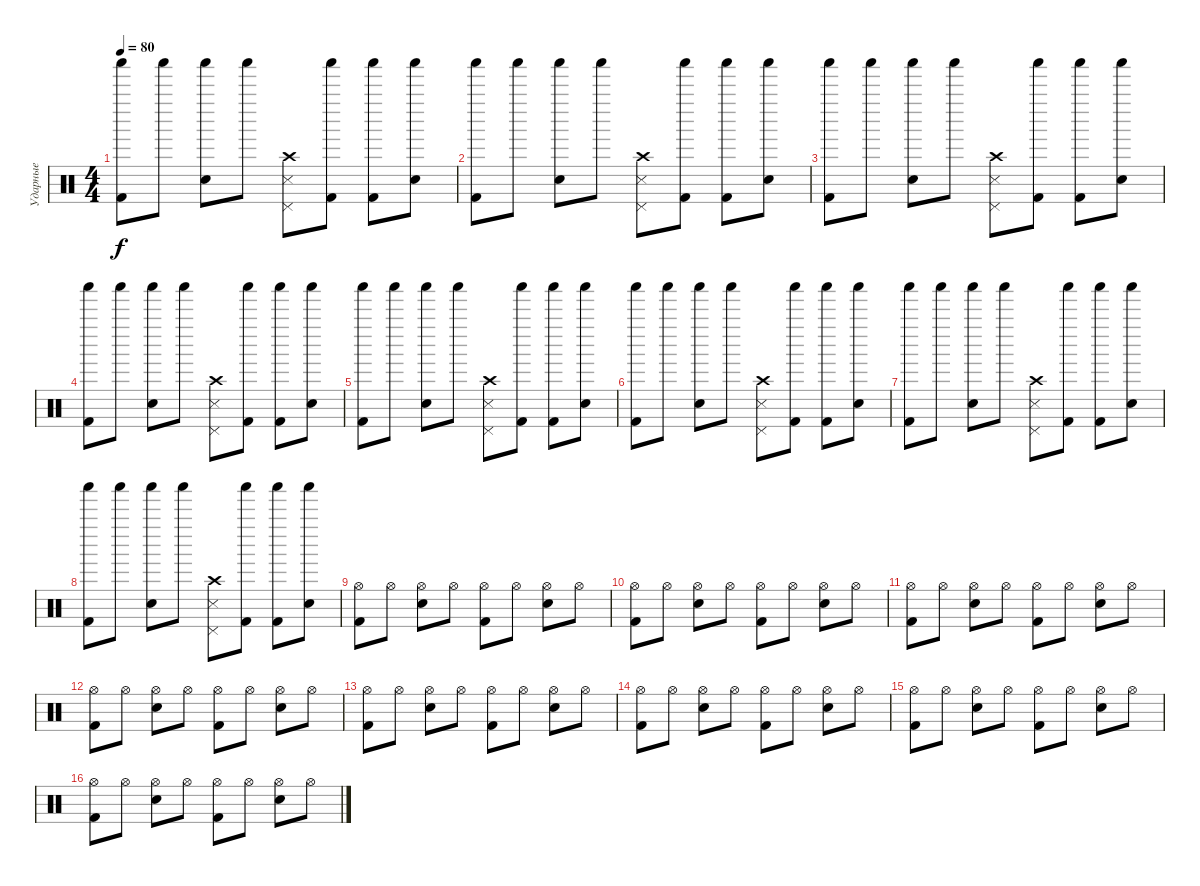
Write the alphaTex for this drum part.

\track ("Ударные" "Ударные") {instrument percussion}
\staff {score}
\articulation defaults
\ts (4 4)
\tempo 80
\clef neutral
\ks c
("Shaker (hit)" "Kick (hit) 2").8{dy f} "Shaker (hit)".8 ("Shaker (hit)" "Snare (hit) 2").8 "Shaker (hit)".8 ("Pedal Hi-Hat (hit)" "Metronome (hit)" "Crash high (hit)").8 ("Shaker (hit)" "Kick (hit) 2").8 ("Shaker (hit)" "Kick (hit) 2").8 ("Shaker (hit)" "Snare (hit) 2").8 |
("Shaker (hit)" "Kick (hit) 2").8 "Shaker (hit)".8 ("Shaker (hit)" "Snare (hit) 2").8 "Shaker (hit)".8 ("Pedal Hi-Hat (hit)" "Metronome (hit)" "Crash high (hit)").8 ("Shaker (hit)" "Kick (hit) 2").8 ("Shaker (hit)" "Kick (hit) 2").8 ("Shaker (hit)" "Snare (hit) 2").8 |
("Shaker (hit)" "Kick (hit) 2").8 "Shaker (hit)".8 ("Shaker (hit)" "Snare (hit) 2").8 "Shaker (hit)".8 ("Pedal Hi-Hat (hit)" "Metronome (hit)" "Crash high (hit)").8 ("Shaker (hit)" "Kick (hit) 2").8 ("Shaker (hit)" "Kick (hit) 2").8 ("Shaker (hit)" "Snare (hit) 2").8 |
("Shaker (hit)" "Kick (hit) 2").8 "Shaker (hit)".8 ("Shaker (hit)" "Snare (hit) 2").8 "Shaker (hit)".8 ("Pedal Hi-Hat (hit)" "Metronome (hit)" "Crash high (hit)").8 ("Shaker (hit)" "Kick (hit) 2").8 ("Shaker (hit)" "Kick (hit) 2").8 ("Shaker (hit)" "Snare (hit) 2").8 |
("Shaker (hit)" "Kick (hit) 2").8 "Shaker (hit)".8 ("Shaker (hit)" "Snare (hit) 2").8 "Shaker (hit)".8 ("Pedal Hi-Hat (hit)" "Metronome (hit)" "Crash high (hit)").8 ("Shaker (hit)" "Kick (hit) 2").8 ("Shaker (hit)" "Kick (hit) 2").8 ("Shaker (hit)" "Snare (hit) 2").8 |
("Shaker (hit)" "Kick (hit) 2").8 "Shaker (hit)".8 ("Shaker (hit)" "Snare (hit) 2").8 "Shaker (hit)".8 ("Pedal Hi-Hat (hit)" "Metronome (hit)" "Crash high (hit)").8 ("Shaker (hit)" "Kick (hit) 2").8 ("Shaker (hit)" "Kick (hit) 2").8 ("Shaker (hit)" "Snare (hit) 2").8 |
("Shaker (hit)" "Kick (hit) 2").8 "Shaker (hit)".8 ("Shaker (hit)" "Snare (hit) 2").8 "Shaker (hit)".8 ("Pedal Hi-Hat (hit)" "Metronome (hit)" "Crash high (hit)").8 ("Shaker (hit)" "Kick (hit) 2").8 ("Shaker (hit)" "Kick (hit) 2").8 ("Shaker (hit)" "Snare (hit) 2").8 |
("Shaker (hit)" "Kick (hit) 2").8 "Shaker (hit)".8 ("Shaker (hit)" "Snare (hit) 2").8 "Shaker (hit)".8 ("Pedal Hi-Hat (hit)" "Metronome (hit)" "Crash high (hit)").8 ("Shaker (hit)" "Kick (hit) 2").8 ("Shaker (hit)" "Kick (hit) 2").8 ("Shaker (hit)" "Snare (hit) 2").8 |
("Hi-Hat (open)" "Kick (hit) 2").8 "Hi-Hat (open)".8 ("Hi-Hat (open)" "Snare (hit) 2").8 "Hi-Hat (open)".8 ("Hi-Hat (open)" "Kick (hit) 2").8 "Hi-Hat (open)".8 ("Hi-Hat (open)" "Snare (hit) 2").8 "Hi-Hat (open)".8 |
("Hi-Hat (open)" "Kick (hit) 2").8 "Hi-Hat (open)".8 ("Hi-Hat (open)" "Snare (hit) 2").8 "Hi-Hat (open)".8 ("Hi-Hat (open)" "Kick (hit) 2").8 "Hi-Hat (open)".8 ("Hi-Hat (open)" "Snare (hit) 2").8 "Hi-Hat (open)".8 |
("Hi-Hat (open)" "Kick (hit) 2").8 "Hi-Hat (open)".8 ("Hi-Hat (open)" "Snare (hit) 2").8 "Hi-Hat (open)".8 ("Hi-Hat (open)" "Kick (hit) 2").8 "Hi-Hat (open)".8 ("Hi-Hat (open)" "Snare (hit) 2").8 "Hi-Hat (open)".8 |
("Hi-Hat (open)" "Kick (hit) 2").8 "Hi-Hat (open)".8 ("Hi-Hat (open)" "Snare (hit) 2").8 "Hi-Hat (open)".8 ("Hi-Hat (open)" "Kick (hit) 2").8 "Hi-Hat (open)".8 ("Hi-Hat (open)" "Snare (hit) 2").8 "Hi-Hat (open)".8 |
("Hi-Hat (open)" "Kick (hit) 2").8 "Hi-Hat (open)".8 ("Hi-Hat (open)" "Snare (hit) 2").8 "Hi-Hat (open)".8 ("Hi-Hat (open)" "Kick (hit) 2").8 "Hi-Hat (open)".8 ("Hi-Hat (open)" "Snare (hit) 2").8 "Hi-Hat (open)".8 |
("Hi-Hat (open)" "Kick (hit) 2").8 "Hi-Hat (open)".8 ("Hi-Hat (open)" "Snare (hit) 2").8 "Hi-Hat (open)".8 ("Hi-Hat (open)" "Kick (hit) 2").8 "Hi-Hat (open)".8 ("Hi-Hat (open)" "Snare (hit) 2").8 "Hi-Hat (open)".8 |
("Hi-Hat (open)" "Kick (hit) 2").8 "Hi-Hat (open)".8 ("Hi-Hat (open)" "Snare (hit) 2").8 "Hi-Hat (open)".8 ("Hi-Hat (open)" "Kick (hit) 2").8 "Hi-Hat (open)".8 ("Hi-Hat (open)" "Snare (hit) 2").8 "Hi-Hat (open)".8 |
("Hi-Hat (open)" "Kick (hit) 2").8 "Hi-Hat (open)".8 ("Hi-Hat (open)" "Snare (hit) 2").8 "Hi-Hat (open)".8 ("Hi-Hat (open)" "Kick (hit) 2").8 "Hi-Hat (open)".8 ("Hi-Hat (open)" "Snare (hit) 2").8 "Hi-Hat (open)".8
